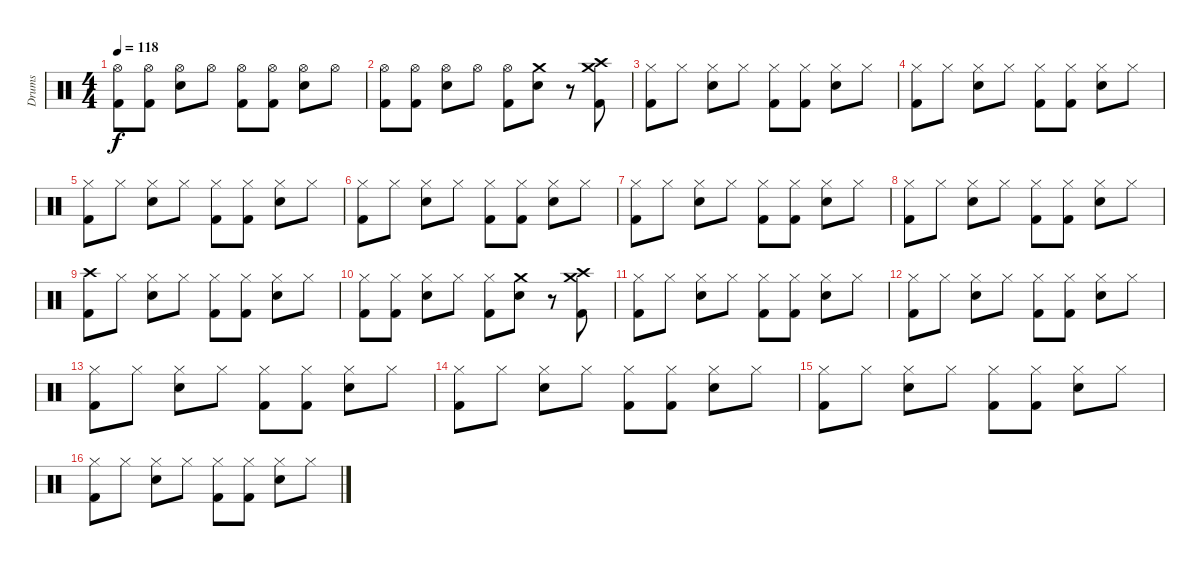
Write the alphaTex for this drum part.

\track ("Drums" "Drums") {instrument percussion}
\staff {score}
\articulation defaults
\ts (4 4)
\tempo 118
\clef neutral
\ks c
("Hi-Hat (open)" "Kick (hit) 2").8{dy f} ("Hi-Hat (open)" "Kick (hit) 2").8 ("Hi-Hat (open)" "Electric Snare (hit)").8 "Hi-Hat (open)".8 ("Hi-Hat (open)" "Kick (hit) 2").8 ("Hi-Hat (open)" "Kick (hit) 2").8 ("Hi-Hat (open)" "Electric Snare (hit)").8 "Hi-Hat (open)".8 |
("Hi-Hat (open)" "Kick (hit) 2").8 ("Hi-Hat (open)" "Kick (hit) 2").8 ("Hi-Hat (open)" "Electric Snare (hit)").8 "Hi-Hat (open)".8 ("Hi-Hat (open)" "Kick (hit) 2").8 ("Crash medium (hit)" "Electric Snare (hit)").8 r.8 ("Crash medium (hit)" "Crash high (hit)" "Kick (hit) 2").8 |
("Hi-Hat (closed)" "Kick (hit) 2").8 "Hi-Hat (closed)".8 ("Hi-Hat (closed)" "Electric Snare (hit)").8 "Hi-Hat (closed)".8 ("Hi-Hat (closed)" "Kick (hit) 2").8 ("Hi-Hat (closed)" "Kick (hit) 2").8 ("Hi-Hat (closed)" "Electric Snare (hit)").8 "Hi-Hat (closed)".8 |
("Hi-Hat (closed)" "Kick (hit) 2").8 "Hi-Hat (closed)".8 ("Hi-Hat (closed)" "Electric Snare (hit)").8 "Hi-Hat (closed)".8 ("Hi-Hat (closed)" "Kick (hit) 2").8 ("Hi-Hat (closed)" "Kick (hit) 2").8 ("Hi-Hat (closed)" "Electric Snare (hit)").8 "Hi-Hat (closed)".8 |
("Hi-Hat (closed)" "Kick (hit) 2").8 "Hi-Hat (closed)".8 ("Hi-Hat (closed)" "Electric Snare (hit)").8 "Hi-Hat (closed)".8 ("Hi-Hat (closed)" "Kick (hit) 2").8 ("Hi-Hat (closed)" "Kick (hit) 2").8 ("Hi-Hat (closed)" "Electric Snare (hit)").8 "Hi-Hat (closed)".8 |
("Hi-Hat (closed)" "Kick (hit) 2").8 "Hi-Hat (closed)".8 ("Hi-Hat (closed)" "Electric Snare (hit)").8 "Hi-Hat (closed)".8 ("Hi-Hat (closed)" "Kick (hit) 2").8 ("Hi-Hat (closed)" "Kick (hit) 2").8 ("Hi-Hat (closed)" "Electric Snare (hit)").8 "Hi-Hat (closed)".8 |
("Hi-Hat (closed)" "Kick (hit) 2").8 "Hi-Hat (closed)".8 ("Hi-Hat (closed)" "Electric Snare (hit)").8 "Hi-Hat (closed)".8 ("Hi-Hat (closed)" "Kick (hit) 2").8 ("Hi-Hat (closed)" "Kick (hit) 2").8 ("Hi-Hat (closed)" "Electric Snare (hit)").8 "Hi-Hat (closed)".8 |
("Hi-Hat (closed)" "Kick (hit) 2").8 "Hi-Hat (closed)".8 ("Hi-Hat (closed)" "Electric Snare (hit)").8 "Hi-Hat (closed)".8 ("Hi-Hat (closed)" "Kick (hit) 2").8 ("Hi-Hat (closed)" "Kick (hit) 2").8 ("Hi-Hat (closed)" "Electric Snare (hit)").8 "Hi-Hat (closed)".8 |
("Crash high (hit)" "Kick (hit) 2").8 "Hi-Hat (closed)".8 ("Hi-Hat (closed)" "Electric Snare (hit)").8 "Hi-Hat (closed)".8 ("Hi-Hat (closed)" "Kick (hit) 2").8 ("Hi-Hat (closed)" "Kick (hit) 2").8 ("Hi-Hat (closed)" "Electric Snare (hit)").8 "Hi-Hat (closed)".8 |
("Hi-Hat (closed)" "Kick (hit) 2").8 ("Hi-Hat (closed)" "Kick (hit) 2").8 ("Hi-Hat (closed)" "Electric Snare (hit)").8 "Hi-Hat (closed)".8 ("Hi-Hat (closed)" "Kick (hit) 2").8 ("Crash medium (hit)" "Electric Snare (hit)").8 r.8 ("Crash medium (hit)" "Crash high (hit)" "Kick (hit) 2").8 |
("Hi-Hat (closed)" "Kick (hit) 2").8 "Hi-Hat (closed)".8 ("Hi-Hat (closed)" "Electric Snare (hit)").8 "Hi-Hat (closed)".8 ("Hi-Hat (closed)" "Kick (hit) 2").8 ("Hi-Hat (closed)" "Kick (hit) 2").8 ("Hi-Hat (closed)" "Electric Snare (hit)").8 "Hi-Hat (closed)".8 |
("Hi-Hat (closed)" "Kick (hit) 2").8 "Hi-Hat (closed)".8 ("Hi-Hat (closed)" "Electric Snare (hit)").8 "Hi-Hat (closed)".8 ("Hi-Hat (closed)" "Kick (hit) 2").8 ("Hi-Hat (closed)" "Kick (hit) 2").8 ("Hi-Hat (closed)" "Electric Snare (hit)").8 "Hi-Hat (closed)".8 |
("Hi-Hat (closed)" "Kick (hit) 2").8 "Hi-Hat (closed)".8 ("Hi-Hat (closed)" "Electric Snare (hit)").8 "Hi-Hat (closed)".8 ("Hi-Hat (closed)" "Kick (hit) 2").8 ("Hi-Hat (closed)" "Kick (hit) 2").8 ("Hi-Hat (closed)" "Electric Snare (hit)").8 "Hi-Hat (closed)".8 |
("Hi-Hat (closed)" "Kick (hit) 2").8 "Hi-Hat (closed)".8 ("Hi-Hat (closed)" "Electric Snare (hit)").8 "Hi-Hat (closed)".8 ("Hi-Hat (closed)" "Kick (hit) 2").8 ("Hi-Hat (closed)" "Kick (hit) 2").8 ("Hi-Hat (closed)" "Electric Snare (hit)").8 "Hi-Hat (closed)".8 |
("Hi-Hat (closed)" "Kick (hit) 2").8 "Hi-Hat (closed)".8 ("Hi-Hat (closed)" "Electric Snare (hit)").8 "Hi-Hat (closed)".8 ("Hi-Hat (closed)" "Kick (hit) 2").8 ("Hi-Hat (closed)" "Kick (hit) 2").8 ("Hi-Hat (closed)" "Electric Snare (hit)").8 "Hi-Hat (closed)".8 |
("Hi-Hat (closed)" "Kick (hit) 2").8 "Hi-Hat (closed)".8 ("Hi-Hat (closed)" "Electric Snare (hit)").8 "Hi-Hat (closed)".8 ("Hi-Hat (closed)" "Kick (hit) 2").8 ("Hi-Hat (closed)" "Kick (hit) 2").8 ("Hi-Hat (closed)" "Electric Snare (hit)").8 "Hi-Hat (closed)".8
